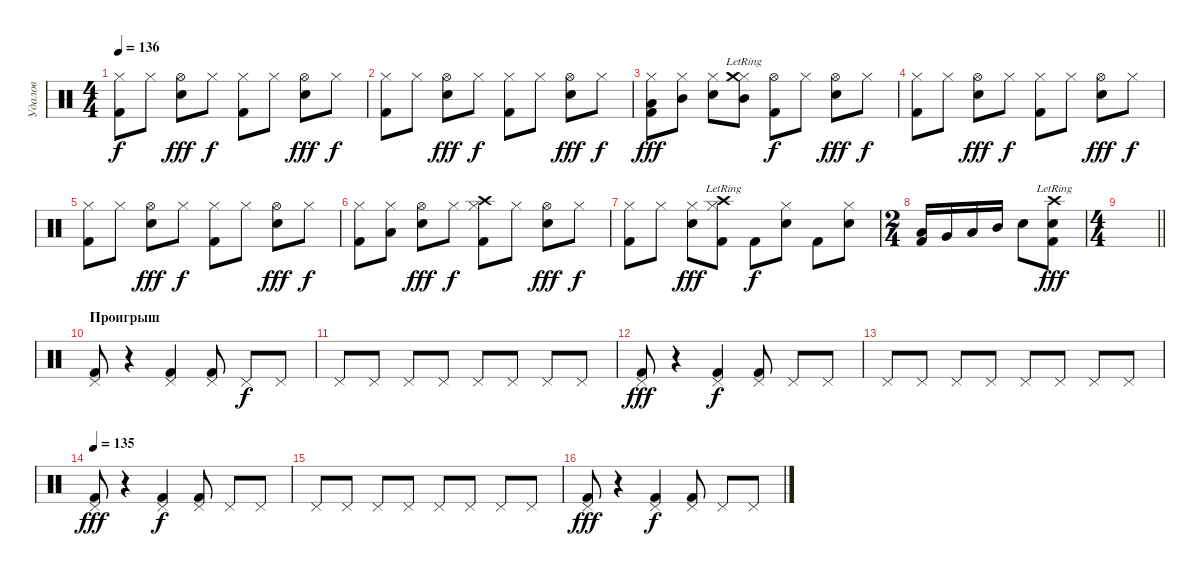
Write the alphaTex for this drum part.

\track ("Удалов" "Удалов") {instrument percussion}
\staff {score}
\articulation defaults
\ts (4 4)
\tempo 136
\clef neutral
\ks c
("Hi-Hat (closed)" "Kick (hit) 2").8{dy f} "Hi-Hat (closed)".8 ("Hi-Hat (open)" "Snare (hit) 2").8{dy fff} "Hi-Hat (closed)".8{dy f} ("Hi-Hat (closed)" "Kick (hit) 2").8 "Hi-Hat (closed)".8 ("Hi-Hat (open)" "Snare (hit) 2").8{dy fff} "Hi-Hat (closed)".8{dy f} |
("Hi-Hat (closed)" "Kick (hit) 2").8 "Hi-Hat (closed)".8 ("Hi-Hat (open)" "Snare (hit) 2").8{dy fff} "Hi-Hat (closed)".8{dy f} ("Hi-Hat (closed)" "Kick (hit) 2").8 "Hi-Hat (closed)".8 ("Hi-Hat (open)" "Snare (hit) 2").8{dy fff} "Hi-Hat (closed)".8{dy f} |
("Hi-Hat (closed)" "Kick (hit) 2" "Low Floor Tom (hit)").8{dy fff} ("Hi-Hat (closed)" "Mid Tom (hit)").8 ("Hi-Hat (closed)" "Snare (hit) 2").8 ("Hi-Hat (closed)" "Mid Tom (hit)" "Crash medium (hit)"{lr}).8 ("Hi-Hat (open)" "Kick (hit) 2").8{dy f} "Hi-Hat (closed)".8 ("Hi-Hat (open)" "Snare (hit) 2").8{dy fff} "Hi-Hat (closed)".8{dy f} |
("Hi-Hat (closed)" "Kick (hit) 2").8 "Hi-Hat (closed)".8 ("Hi-Hat (open)" "Snare (hit) 2").8{dy fff} "Hi-Hat (closed)".8{dy f} ("Hi-Hat (closed)" "Kick (hit) 2").8 "Hi-Hat (closed)".8 ("Hi-Hat (open)" "Snare (hit) 2").8{dy fff} "Hi-Hat (closed)".8{dy f} |
("Hi-Hat (closed)" "Kick (hit) 2").8 "Hi-Hat (closed)".8 ("Hi-Hat (open)" "Snare (hit) 2").8{dy fff} "Hi-Hat (closed)".8{dy f} ("Hi-Hat (closed)" "Kick (hit) 2").8 "Hi-Hat (closed)".8 ("Hi-Hat (open)" "Snare (hit) 2").8{dy fff} "Hi-Hat (closed)".8{dy f} |
("Hi-Hat (closed)" "Kick (hit) 2").8 ("Hi-Hat (closed)" "Low Tom (hit)").8 ("Hi-Hat (open)" "Snare (hit) 2").8{dy fff} "Hi-Hat (closed)".8{dy f} ("Hi-Hat (closed)" "Kick (hit) 2" "Crash high (hit)").8 "Hi-Hat (closed)".8 ("Hi-Hat (open)" "Snare (hit) 2").8{dy fff} "Hi-Hat (closed)".8{dy f} |
("Hi-Hat (closed)" "Kick (hit) 2").8 "Hi-Hat (closed)".8 ("Hi-Hat (closed)" "Snare (hit) 2").8{dy fff} ("Hi-Hat (closed)" "Kick (hit) 2" "Crash high (hit)"{lr}).8 "Kick (hit) 2".8{dy f} ("Hi-Hat (closed)" "Snare (hit) 2").8 "Kick (hit) 2".8 ("Hi-Hat (closed)" "Snare (hit) 2").8 |
\ts (2 4)
("Low Floor Tom (hit)" "Kick (hit) 2").16 "Very Low Tom (hit)".16 "Low Tom (hit)".16 "Mid Tom (hit)".16 "Snare (hit) 2".8 ("Snare (hit) 2" "Crash high (hit)"{lr} "Kick (hit) 2").8{dy fff} |
\ts (4 4)
\barLineRight lightlight
|
\section ("" "Проигрыш")
("Pedal Hi-Hat (hit)" "Kick (hit) 2").8 r.4 ("Pedal Hi-Hat (hit)" "Kick (hit) 2").4 ("Pedal Hi-Hat (hit)" "Kick (hit) 2").8 "Pedal Hi-Hat (hit)".8{dy f} "Pedal Hi-Hat (hit)".8 |
"Pedal Hi-Hat (hit)".8 "Pedal Hi-Hat (hit)".8 "Pedal Hi-Hat (hit)".8 "Pedal Hi-Hat (hit)".8 "Pedal Hi-Hat (hit)".8 "Pedal Hi-Hat (hit)".8 "Pedal Hi-Hat (hit)".8 "Pedal Hi-Hat (hit)".8 |
("Pedal Hi-Hat (hit)" "Kick (hit) 2").8{dy fff} r.4 ("Pedal Hi-Hat (hit)" "Kick (hit) 2").4{dy f} ("Pedal Hi-Hat (hit)" "Kick (hit) 2").8 "Pedal Hi-Hat (hit)".8 "Pedal Hi-Hat (hit)".8 |
"Pedal Hi-Hat (hit)".8 "Pedal Hi-Hat (hit)".8 "Pedal Hi-Hat (hit)".8 "Pedal Hi-Hat (hit)".8 "Pedal Hi-Hat (hit)".8 "Pedal Hi-Hat (hit)".8 "Pedal Hi-Hat (hit)".8 "Pedal Hi-Hat (hit)".8 |
\tempo 135
("Pedal Hi-Hat (hit)" "Kick (hit) 2").8{dy fff} r.4 ("Pedal Hi-Hat (hit)" "Kick (hit) 2").4{dy f} ("Pedal Hi-Hat (hit)" "Kick (hit) 2").8 "Pedal Hi-Hat (hit)".8 "Pedal Hi-Hat (hit)".8 |
"Pedal Hi-Hat (hit)".8 "Pedal Hi-Hat (hit)".8 "Pedal Hi-Hat (hit)".8 "Pedal Hi-Hat (hit)".8 "Pedal Hi-Hat (hit)".8 "Pedal Hi-Hat (hit)".8 "Pedal Hi-Hat (hit)".8 "Pedal Hi-Hat (hit)".8 |
("Pedal Hi-Hat (hit)" "Kick (hit) 2").8{dy fff} r.4 ("Pedal Hi-Hat (hit)" "Kick (hit) 2").4{dy f} ("Pedal Hi-Hat (hit)" "Kick (hit) 2").8 "Pedal Hi-Hat (hit)".8 "Pedal Hi-Hat (hit)".8
